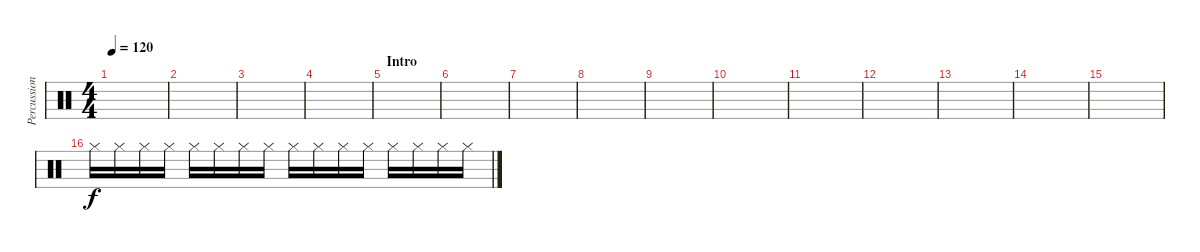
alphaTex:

\track ("Percussion" "Percussion") {instrument percussion}
\staff {score}
\articulation defaults
\ts (4 4)
\tempo 120
\clef neutral
\ks c
|
|
|
|
\section ("" "Intro")
|
|
|
|
|
|
|
|
|
|
|
"Hi-Hat (closed)".16 "Hi-Hat (closed)".16 "Hi-Hat (closed)".16 "Hi-Hat (closed)".16 "Hi-Hat (closed)".16 "Hi-Hat (closed)".16 "Hi-Hat (closed)".16 "Hi-Hat (closed)".16 "Hi-Hat (closed)".16 "Hi-Hat (closed)".16 "Hi-Hat (closed)".16 "Hi-Hat (closed)".16 "Hi-Hat (closed)".16 "Hi-Hat (closed)".16 "Hi-Hat (closed)".16 "Hi-Hat (closed)".16
